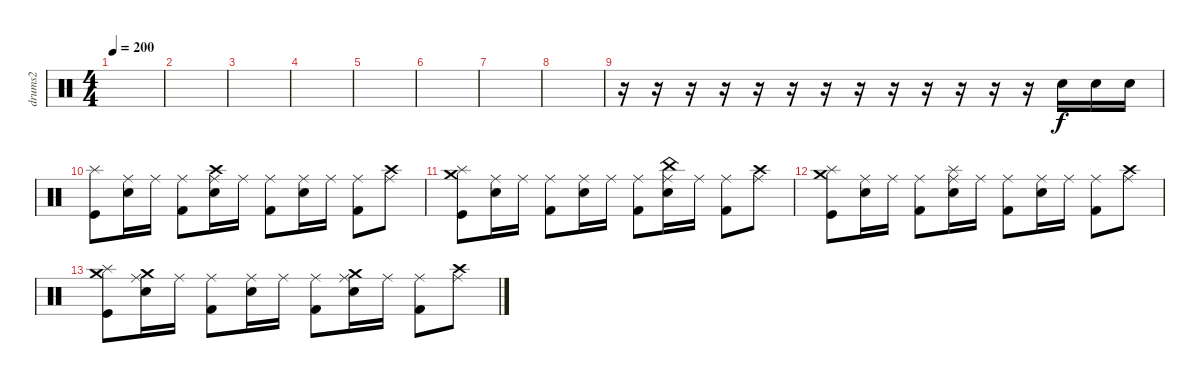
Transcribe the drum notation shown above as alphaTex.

\track ("drums2" "drums2") {instrument percussion}
\staff {score}
\articulation defaults
\ts (4 4)
\tempo 200
\clef neutral
\ks c
|
|
|
|
|
|
|
|
r.16 r.16 r.16 r.16 r.16 r.16 r.16 r.16 r.16 r.16 r.16 r.16 r.16 "Electric Snare (hit)".16 "Electric Snare (hit)".16 "Electric Snare (hit)".16 |
("Splash (hit)" "Kick (hit)").8 ("Ride (middle)" "Electric Snare (hit)").16 "Ride (middle)".16 ("Ride (middle)" "Kick (hit) 2").8 ("Ride (middle)" "Electric Snare (hit)" "Crash high (hit)").16 "Ride (middle)".16 ("Ride (middle)" "Kick (hit) 2").8 ("Ride (middle)" "Electric Snare (hit)").16 "Ride (middle)".16 ("Ride (middle)" "Kick (hit) 2").8 ("Ride (middle)" "Crash high (hit)").8 |
("Splash (hit)" "Kick (hit)" "Crash medium (hit)").8 ("Ride (middle)" "Electric Snare (hit)").16 "Ride (middle)".16 ("Ride (middle)" "Kick (hit) 2").8 ("Ride (middle)" "Electric Snare (hit)").16 "Ride (middle)".16 ("Ride (middle)" "Kick (hit) 2").8 ("Ride (middle)" "Electric Snare (hit)" "China (hit)").16 "Ride (middle)".16 ("Ride (middle)" "Kick (hit) 2").8 ("Ride (middle)" "Crash high (hit)").8 |
("Splash (hit)" "Kick (hit)" "Crash medium (hit)").8 ("Ride (middle)" "Electric Snare (hit)").16 "Ride (middle)".16 ("Ride (middle)" "Kick (hit) 2").8 ("Ride (middle)" "Electric Snare (hit)" "Splash (hit)").16 "Ride (middle)".16 ("Ride (middle)" "Kick (hit) 2").8 ("Ride (middle)" "Electric Snare (hit)").16 "Ride (middle)".16 ("Ride (middle)" "Kick (hit) 2").8 ("Ride (middle)" "Crash high (hit)").8 |
("Splash (hit)" "Kick (hit)" "Crash medium (hit)").8 ("Ride (middle)" "Electric Snare (hit)" "Crash medium (hit)").16 "Ride (middle)".16 ("Ride (middle)" "Kick (hit) 2").8 ("Ride (middle)" "Electric Snare (hit)").16 "Ride (middle)".16 ("Ride (middle)" "Kick (hit) 2").8 ("Ride (middle)" "Electric Snare (hit)" "Crash medium (hit)").16 "Ride (middle)".16 ("Ride (middle)" "Kick (hit) 2").8 ("Ride (middle)" "Crash high (hit)").8
